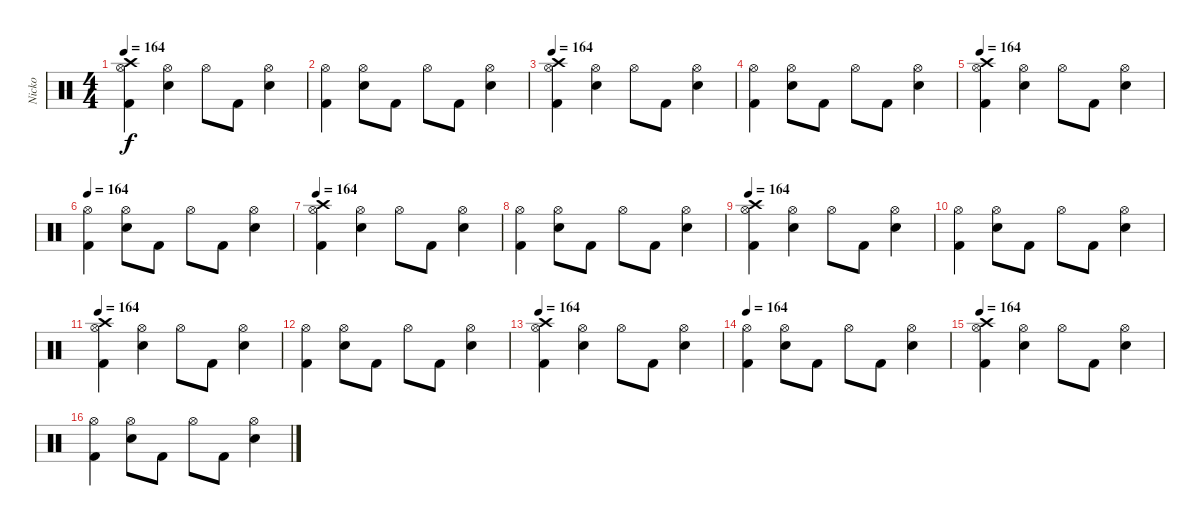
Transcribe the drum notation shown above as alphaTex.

\track ("Nicko" "Nicko") {instrument percussion}
\staff {score}
\articulation defaults
\ts (4 4)
\tempo 164
\clef neutral
\ks c
("Hi-Hat (open)" "Crash high (hit)" "Kick (hit) 2").4{dy f} ("Hi-Hat (open)" "Snare (hit) 2").4 "Hi-Hat (open)".8 "Kick (hit) 2".8 ("Hi-Hat (open)" "Snare (hit) 2").4 |
("Hi-Hat (open)" "Kick (hit) 2").4 ("Hi-Hat (open)" "Snare (hit) 2").8 "Kick (hit) 2".8 "Hi-Hat (open)".8 "Kick (hit) 2".8 ("Hi-Hat (open)" "Snare (hit) 2").4 |
\tempo 164
("Hi-Hat (open)" "Crash high (hit)" "Kick (hit) 2").4 ("Hi-Hat (open)" "Snare (hit) 2").4 "Hi-Hat (open)".8 "Kick (hit) 2".8 ("Hi-Hat (open)" "Snare (hit) 2").4 |
("Hi-Hat (open)" "Kick (hit) 2").4 ("Hi-Hat (open)" "Snare (hit) 2").8 "Kick (hit) 2".8 "Hi-Hat (open)".8 "Kick (hit) 2".8 ("Hi-Hat (open)" "Snare (hit) 2").4 |
\tempo 164
("Hi-Hat (open)" "Crash high (hit)" "Kick (hit) 2").4 ("Hi-Hat (open)" "Snare (hit) 2").4 "Hi-Hat (open)".8 "Kick (hit) 2".8 ("Hi-Hat (open)" "Snare (hit) 2").4 |
\tempo 164
("Hi-Hat (open)" "Kick (hit) 2").4 ("Hi-Hat (open)" "Snare (hit) 2").8 "Kick (hit) 2".8 "Hi-Hat (open)".8 "Kick (hit) 2".8 ("Hi-Hat (open)" "Snare (hit) 2").4 |
\tempo 164
("Hi-Hat (open)" "Crash high (hit)" "Kick (hit) 2").4 ("Hi-Hat (open)" "Snare (hit) 2").4 "Hi-Hat (open)".8 "Kick (hit) 2".8 ("Hi-Hat (open)" "Snare (hit) 2").4 |
("Hi-Hat (open)" "Kick (hit) 2").4 ("Hi-Hat (open)" "Snare (hit) 2").8 "Kick (hit) 2".8 "Hi-Hat (open)".8 "Kick (hit) 2".8 ("Hi-Hat (open)" "Snare (hit) 2").4 |
\tempo 164
("Hi-Hat (open)" "Crash high (hit)" "Kick (hit) 2").4 ("Hi-Hat (open)" "Snare (hit) 2").4 "Hi-Hat (open)".8 "Kick (hit) 2".8 ("Hi-Hat (open)" "Snare (hit) 2").4 |
("Hi-Hat (open)" "Kick (hit) 2").4 ("Hi-Hat (open)" "Snare (hit) 2").8 "Kick (hit) 2".8 "Hi-Hat (open)".8 "Kick (hit) 2".8 ("Hi-Hat (open)" "Snare (hit) 2").4 |
\tempo 164
("Hi-Hat (open)" "Crash high (hit)" "Kick (hit) 2").4 ("Hi-Hat (open)" "Snare (hit) 2").4 "Hi-Hat (open)".8 "Kick (hit) 2".8 ("Hi-Hat (open)" "Snare (hit) 2").4 |
("Hi-Hat (open)" "Kick (hit) 2").4 ("Hi-Hat (open)" "Snare (hit) 2").8 "Kick (hit) 2".8 "Hi-Hat (open)".8 "Kick (hit) 2".8 ("Hi-Hat (open)" "Snare (hit) 2").4 |
\tempo 164
("Hi-Hat (open)" "Crash high (hit)" "Kick (hit) 2").4 ("Hi-Hat (open)" "Snare (hit) 2").4 "Hi-Hat (open)".8 "Kick (hit) 2".8 ("Hi-Hat (open)" "Snare (hit) 2").4 |
\tempo 164
("Hi-Hat (open)" "Kick (hit) 2").4 ("Hi-Hat (open)" "Snare (hit) 2").8 "Kick (hit) 2".8 "Hi-Hat (open)".8 "Kick (hit) 2".8 ("Hi-Hat (open)" "Snare (hit) 2").4 |
\tempo 164
("Hi-Hat (open)" "Crash high (hit)" "Kick (hit) 2").4 ("Hi-Hat (open)" "Snare (hit) 2").4 "Hi-Hat (open)".8 "Kick (hit) 2".8 ("Hi-Hat (open)" "Snare (hit) 2").4 |
("Hi-Hat (open)" "Kick (hit) 2").4 ("Hi-Hat (open)" "Snare (hit) 2").8 "Kick (hit) 2".8 "Hi-Hat (open)".8 "Kick (hit) 2".8 ("Hi-Hat (open)" "Snare (hit) 2").4
